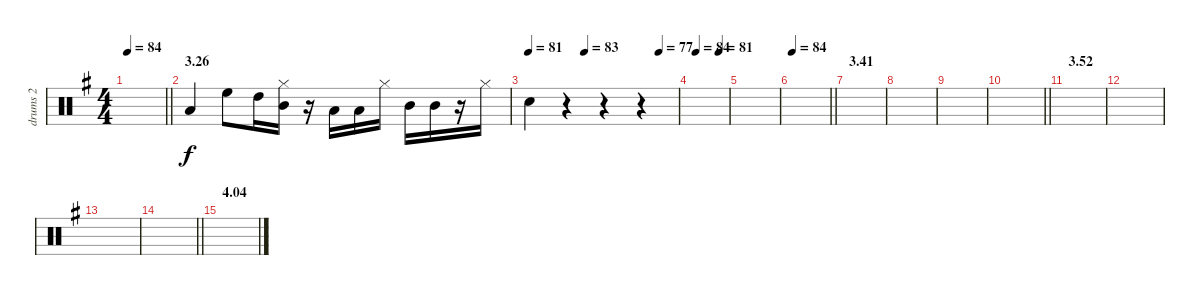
\track ("drums 2" "drums 2") {instrument percussion}
\staff {score}
\articulation defaults
\ts (4 4)
\tempo 84
\clef neutral
\barLineRight lightlight
\ks g
|
\section ("" "3.26")
"Low Tom (hit)".4 "High Floor Tom (hit)".8 "High Tom (hit)".16 ("Hi-Hat (closed)" "Mid Tom (hit)").16 r.16 "Low Tom (hit)".16 "Low Tom (hit)".16 "Hi-Hat (closed)".16 "Mid Tom (hit)".16 "Mid Tom (hit)".16 r.16 "Hi-Hat (closed)".16 |
\tempo 81
\tempo (83 0.375)
\tempo (77 0.875)
"Electric Snare (hit)".4 r.4 r.4 r.4 |
\tempo (84 0.125)
\tempo (81 0.75)
|
|
\tempo 84
\barLineRight lightlight
|
\section ("" "3.41")
|
|
|
\barLineRight lightlight
|
\section ("" "3.52")
|
|
|
\barLineRight lightlight
|
\section ("" "4.04")
